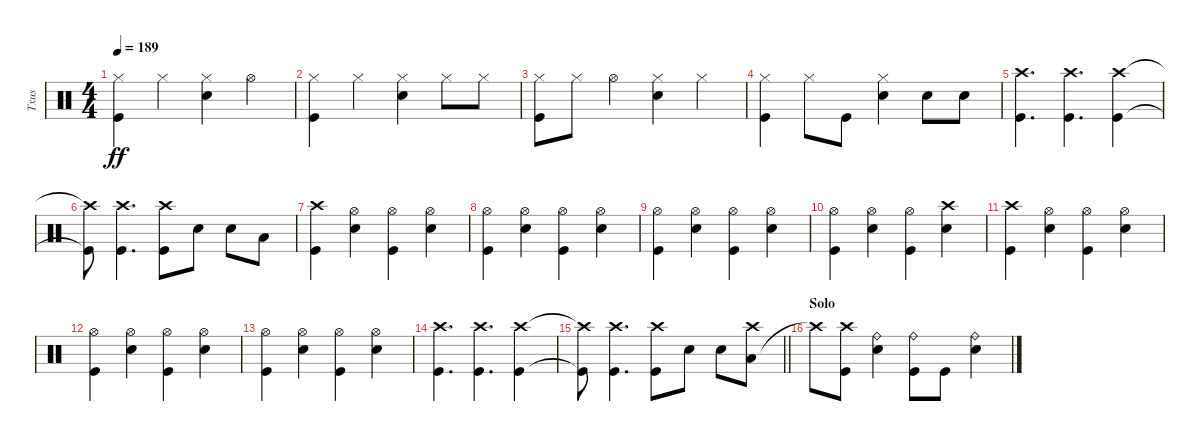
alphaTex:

\track ("Txus" "Txus") {instrument percussion}
\staff {score}
\articulation defaults
\ts (4 4)
\tempo 189
\clef neutral
\ks c
("Hi-Hat (closed)" "Kick (hit)").4{dy ff} "Hi-Hat (closed)".4 ("Hi-Hat (closed)" "Snare (hit) 2").4 "Hi-Hat (open)".4 |
("Hi-Hat (closed)" "Kick (hit)").4 "Hi-Hat (closed)".4 ("Hi-Hat (closed)" "Snare (hit) 2").4 "Hi-Hat (closed)".8 "Hi-Hat (closed)".8 |
("Hi-Hat (closed)" "Kick (hit)").8 "Hi-Hat (closed)".8 "Hi-Hat (open)".4 ("Hi-Hat (closed)" "Snare (hit) 2").4 "Hi-Hat (closed)".4 |
("Hi-Hat (closed)" "Kick (hit)").4 "Hi-Hat (closed)".8 "Kick (hit)".8 ("Hi-Hat (closed)" "Snare (hit) 2").4 "Snare (hit) 2".8 "Snare (hit) 2".8 |
("Crash high (hit)" "Kick (hit)").4{d} ("Crash high (hit)" "Kick (hit)").4{d} ("Crash high (hit)" "Kick (hit)").4 |
("Crash high (hit)"{t} "Kick (hit)"{t}).8 ("Kick (hit)" "Crash high (hit)").4{d} ("Kick (hit)" "Crash high (hit)").8 "Snare (hit) 2".8 "Snare (hit) 2".8 "Low Tom (hit)".8 |
("Crash high (hit)" "Kick (hit)").4 ("Hi-Hat (open)" "Snare (hit) 2").4 ("Hi-Hat (open)" "Kick (hit)").4 ("Hi-Hat (open)" "Snare (hit) 2").4 |
("Hi-Hat (open)" "Kick (hit)").4 ("Hi-Hat (open)" "Snare (hit) 2").4 ("Hi-Hat (open)" "Kick (hit)").4 ("Hi-Hat (open)" "Snare (hit) 2").4 |
("Hi-Hat (open)" "Kick (hit)").4 ("Hi-Hat (open)" "Snare (hit) 2").4 ("Hi-Hat (open)" "Kick (hit)").4 ("Hi-Hat (open)" "Snare (hit) 2").4 |
("Hi-Hat (open)" "Kick (hit)").4 ("Hi-Hat (open)" "Snare (hit) 2").4 ("Hi-Hat (open)" "Kick (hit)").4 ("Snare (hit) 2" "Crash high (hit)").4 |
("Crash high (hit)" "Kick (hit)").4 ("Hi-Hat (open)" "Snare (hit) 2").4 ("Hi-Hat (open)" "Kick (hit)").4 ("Hi-Hat (open)" "Snare (hit) 2").4 |
("Hi-Hat (open)" "Kick (hit)").4 ("Hi-Hat (open)" "Snare (hit) 2").4 ("Hi-Hat (open)" "Kick (hit)").4 ("Hi-Hat (open)" "Snare (hit) 2").4 |
("Hi-Hat (open)" "Kick (hit)").4 ("Hi-Hat (open)" "Snare (hit) 2").4 ("Hi-Hat (open)" "Kick (hit)").4 ("Hi-Hat (open)" "Snare (hit) 2").4 |
("Crash high (hit)" "Kick (hit)").4{d} ("Crash high (hit)" "Kick (hit)").4{d} ("Crash high (hit)" "Kick (hit)").4 |
\barLineRight lightlight
("Crash high (hit)"{t} "Kick (hit)"{t}).8 ("Kick (hit)" "Crash high (hit)").4{d} ("Kick (hit)" "Crash high (hit)").8 "Snare (hit) 2".8 "Snare (hit) 2".8 ("Low Tom (hit)" "Crash high (hit)").8 |
\section ("" "Solo")
"Crash high (hit)"{t}.8 ("Kick (hit)" "Crash high (hit)").8 ("Ride (bell)" "Snare (hit) 2").4 ("Ride (bell)" "Kick (hit)").8 "Kick (hit)".8 ("Ride (bell)" "Snare (hit) 2").4
